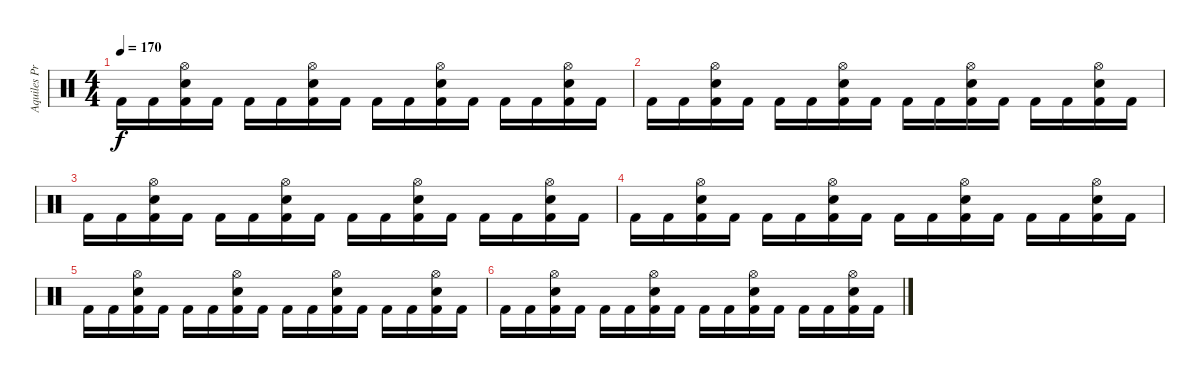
\track ("Aquiles Priester" "Aquiles Pr") {instrument percussion}
\staff {score}
\articulation defaults
\ts (4 4)
\tempo 170
\clef neutral
\ks c "Kick (hit) 2".16{dy f} "Kick (hit) 2".16
("Kick (hit) 2" "Snare (hit) 2" "Hi-Hat (open)").16 "Kick (hit) 2".16 "Kick (hit) 2".16 "Kick (hit) 2".16 ("Kick (hit) 2" "Snare (hit) 2" "Hi-Hat (open)").16 "Kick (hit) 2".16 "Kick (hit) 2".16 "Kick (hit) 2".16 ("Kick (hit) 2" "Snare (hit) 2" "Hi-Hat (open)").16 "Kick (hit) 2".16 "Kick (hit) 2".16 "Kick (hit) 2".16 ("Kick (hit) 2" "Snare (hit) 2" "Hi-Hat (open)").16 "Kick (hit) 2".16 |
"Kick (hit) 2".16 "Kick (hit) 2".16 ("Kick (hit) 2" "Snare (hit) 2" "Hi-Hat (open)").16 "Kick (hit) 2".16 "Kick (hit) 2".16 "Kick (hit) 2".16 ("Kick (hit) 2" "Snare (hit) 2" "Hi-Hat (open)").16 "Kick (hit) 2".16 "Kick (hit) 2".16 "Kick (hit) 2".16 ("Kick (hit) 2" "Snare (hit) 2" "Hi-Hat (open)").16 "Kick (hit) 2".16 "Kick (hit) 2".16 "Kick (hit) 2".16 ("Kick (hit) 2" "Snare (hit) 2" "Hi-Hat (open)").16 "Kick (hit) 2".16 |
"Kick (hit) 2".16 "Kick (hit) 2".16 ("Kick (hit) 2" "Snare (hit) 2" "Hi-Hat (open)").16 "Kick (hit) 2".16 "Kick (hit) 2".16 "Kick (hit) 2".16 ("Kick (hit) 2" "Snare (hit) 2" "Hi-Hat (open)").16 "Kick (hit) 2".16 "Kick (hit) 2".16 "Kick (hit) 2".16 ("Kick (hit) 2" "Snare (hit) 2" "Hi-Hat (open)").16 "Kick (hit) 2".16 "Kick (hit) 2".16 "Kick (hit) 2".16 ("Kick (hit) 2" "Snare (hit) 2" "Hi-Hat (open)").16 "Kick (hit) 2".16 |
"Kick (hit) 2".16 "Kick (hit) 2".16 ("Kick (hit) 2" "Snare (hit) 2" "Hi-Hat (open)").16 "Kick (hit) 2".16 "Kick (hit) 2".16 "Kick (hit) 2".16 ("Kick (hit) 2" "Snare (hit) 2" "Hi-Hat (open)").16 "Kick (hit) 2".16 "Kick (hit) 2".16 "Kick (hit) 2".16 ("Kick (hit) 2" "Snare (hit) 2" "Hi-Hat (open)").16 "Kick (hit) 2".16 "Kick (hit) 2".16 "Kick (hit) 2".16 ("Kick (hit) 2" "Snare (hit) 2" "Hi-Hat (open)").16 "Kick (hit) 2".16 |
"Kick (hit) 2".16 "Kick (hit) 2".16 ("Kick (hit) 2" "Snare (hit) 2" "Hi-Hat (open)").16 "Kick (hit) 2".16 "Kick (hit) 2".16 "Kick (hit) 2".16 ("Kick (hit) 2" "Snare (hit) 2" "Hi-Hat (open)").16 "Kick (hit) 2".16 "Kick (hit) 2".16 "Kick (hit) 2".16 ("Kick (hit) 2" "Snare (hit) 2" "Hi-Hat (open)").16 "Kick (hit) 2".16 "Kick (hit) 2".16 "Kick (hit) 2".16 ("Kick (hit) 2" "Snare (hit) 2" "Hi-Hat (open)").16 "Kick (hit) 2".16 |
"Kick (hit) 2".16 "Kick (hit) 2".16 ("Kick (hit) 2" "Snare (hit) 2" "Hi-Hat (open)").16 "Kick (hit) 2".16 "Kick (hit) 2".16 "Kick (hit) 2".16 ("Kick (hit) 2" "Snare (hit) 2" "Hi-Hat (open)").16 "Kick (hit) 2".16 "Kick (hit) 2".16 "Kick (hit) 2".16 ("Kick (hit) 2" "Snare (hit) 2" "Hi-Hat (open)").16 "Kick (hit) 2".16 "Kick (hit) 2".16 "Kick (hit) 2".16 ("Kick (hit) 2" "Snare (hit) 2" "Hi-Hat (open)").16 "Kick (hit) 2".16
